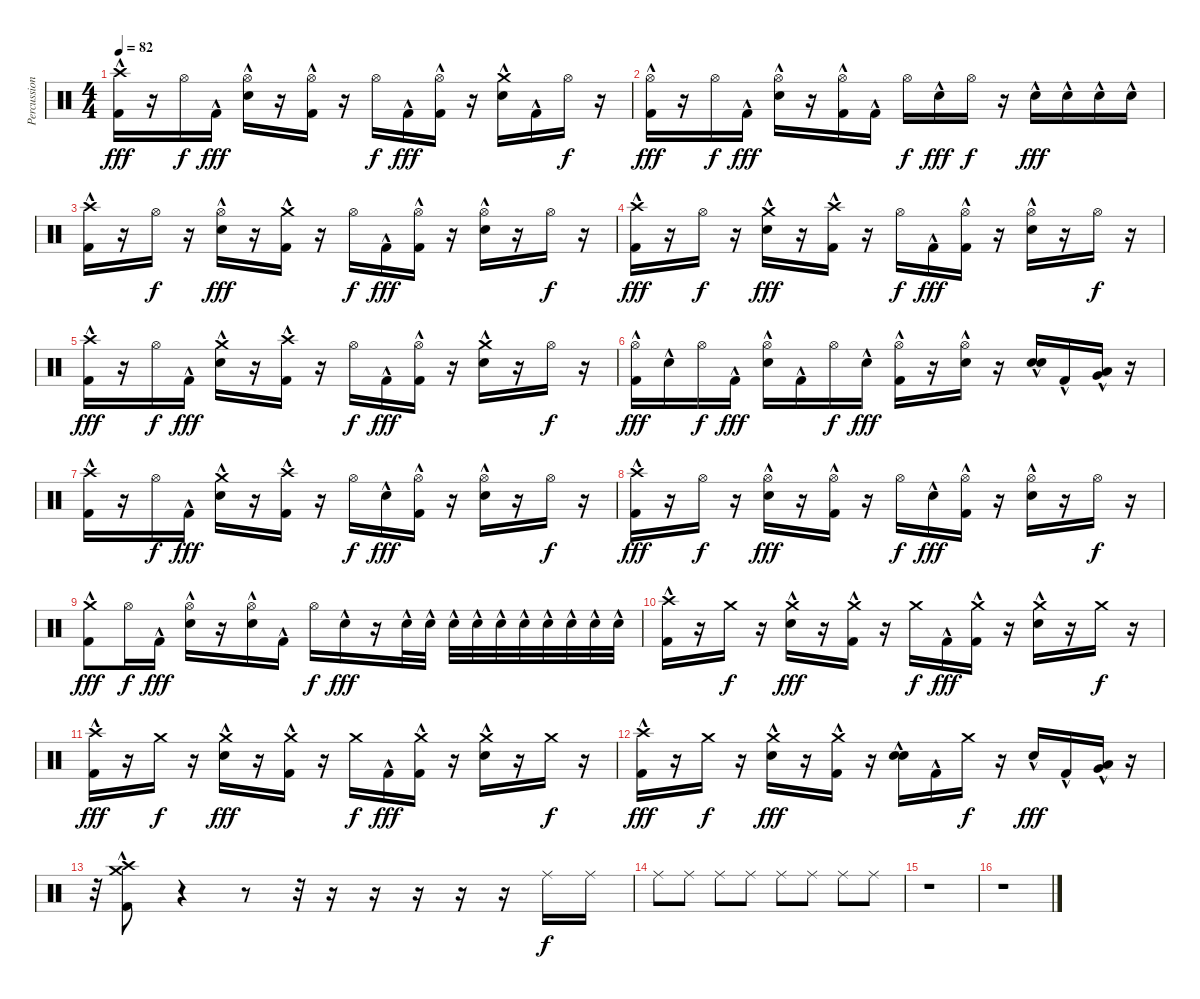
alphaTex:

\track ("Percussion" "Percussion") {instrument percussion}
\staff {score}
\articulation defaults
\ts (4 4)
\tempo 82
\clef neutral
\ks c
("Kick (hit) 2"{hac} "Crash high (hit)").16{dy fff} r.16 "Hi-Hat (open)".16{dy f} "Kick (hit) 2"{hac}.16{dy fff} ("Electric Snare (hit)"{hac} "Hi-Hat (open)").16 r.16 ("Kick (hit) 2"{hac} "Hi-Hat (open)").16 r.16 "Hi-Hat (open)".16{dy f} "Kick (hit) 2"{hac}.16{dy fff} ("Kick (hit) 2"{hac} "Hi-Hat (open)").16 r.16 ("Electric Snare (hit)"{hac} "Crash medium (hit)").16 "Kick (hit) 2"{hac}.16 "Hi-Hat (open)".16{dy f} r.16 |
("Kick (hit) 2"{hac} "Hi-Hat (open)").16{dy fff} r.16 "Hi-Hat (open)".16{dy f} "Kick (hit) 2"{hac}.16{dy fff} ("Electric Snare (hit)"{hac} "Hi-Hat (open)").16 r.16 ("Kick (hit) 2"{hac} "Hi-Hat (open)").16 "Kick (hit) 2"{hac}.16 "Hi-Hat (open)".16{dy f} "Electric Snare (hit)"{hac}.16{dy fff} "Hi-Hat (open)".16{dy f} r.16 "Electric Snare (hit)"{hac}.16{dy fff} "Electric Snare (hit)"{hac}.16 "Electric Snare (hit)"{hac}.16 "Electric Snare (hit)"{hac}.16 |
("Kick (hit) 2"{hac} "Crash high (hit)").16 r.16 "Hi-Hat (open)".16{dy f} r.16 ("Electric Snare (hit)"{hac} "Hi-Hat (open)").16{dy fff} r.16 ("Kick (hit) 2"{hac} "Crash medium (hit)").16 r.16 "Hi-Hat (open)".16{dy f} "Kick (hit) 2"{hac}.16{dy fff} ("Kick (hit) 2"{hac} "Hi-Hat (open)").16 r.16 ("Electric Snare (hit)"{hac} "Hi-Hat (open)").16 r.16 "Hi-Hat (open)".16{dy f} r.16 |
("Kick (hit) 2"{hac} "Crash high (hit)").16{dy fff} r.16 "Hi-Hat (open)".16{dy f} r.16 ("Electric Snare (hit)"{hac} "Crash medium (hit)").16{dy fff} r.16 ("Kick (hit) 2"{hac} "Crash high (hit)").16 r.16 "Hi-Hat (open)".16{dy f} "Kick (hit) 2"{hac}.16{dy fff} ("Kick (hit) 2"{hac} "Hi-Hat (open)").16 r.16 ("Electric Snare (hit)"{hac} "Hi-Hat (open)").16 r.16 "Hi-Hat (open)".16{dy f} r.16 |
("Kick (hit) 2"{hac} "Crash high (hit)").16{dy fff} r.16 "Hi-Hat (open)".16{dy f} "Kick (hit) 2"{hac}.16{dy fff} ("Electric Snare (hit)"{hac} "Crash medium (hit)").16 r.16 ("Kick (hit) 2"{hac} "Crash high (hit)").16 r.16 "Hi-Hat (open)".16{dy f} "Kick (hit) 2"{hac}.16{dy fff} ("Kick (hit) 2"{hac} "Hi-Hat (open)").16 r.16 ("Electric Snare (hit)"{hac} "Crash medium (hit)").16 r.16 "Hi-Hat (open)".16{dy f} r.16 |
("Kick (hit) 2"{hac} "Hi-Hat (open)").16{dy fff} "Electric Snare (hit)"{hac}.16 "Hi-Hat (open)".16{dy f} "Kick (hit) 2"{hac}.16{dy fff} ("Electric Snare (hit)"{hac} "Hi-Hat (open)").16 "Kick (hit) 2"{hac}.16 "Hi-Hat (open)".16{dy f} "Electric Snare (hit)"{hac}.16{dy fff} ("Kick (hit) 2"{hac} "Hi-Hat (open)").16 r.16 ("Electric Snare (hit)"{hac} "Hi-Hat (open)").16 r.16 ("Electric Snare (hit)"{hac} "Electric Snare (hit)"{hac}).16{bd 240} "Kick (hit) 2"{hac}.16 ("Very Low Tom (hit)"{hac} "Low Tom (hit)"{hac}).16 r.16 |
("Kick (hit) 2"{hac} "Crash high (hit)").16 r.16 "Hi-Hat (open)".16{dy f} "Kick (hit) 2"{hac}.16{dy fff} ("Electric Snare (hit)"{hac} "Crash medium (hit)").16 r.16 ("Kick (hit) 2"{hac} "Crash high (hit)").16 r.16 "Hi-Hat (open)".16{dy f} "Electric Snare (hit)"{hac}.16{dy fff} ("Kick (hit) 2"{hac} "Hi-Hat (open)").16 r.16 ("Electric Snare (hit)"{hac} "Hi-Hat (open)").16 r.16 "Hi-Hat (open)".16{dy f} r.16 |
("Kick (hit) 2"{hac} "Crash high (hit)").16{dy fff} r.16 "Hi-Hat (open)".16{dy f} r.16 ("Electric Snare (hit)"{hac} "Hi-Hat (open)").16{dy fff} r.16 ("Kick (hit) 2"{hac} "Hi-Hat (open)").16 r.16 "Hi-Hat (open)".16{dy f} "Electric Snare (hit)"{hac}.16{dy fff} ("Kick (hit) 2"{hac} "Hi-Hat (open)").16 r.16 ("Electric Snare (hit)"{hac} "Hi-Hat (open)").16 r.16 "Hi-Hat (open)".16{dy f} r.16 |
("Kick (hit) 2"{hac} "Crash medium (hit)").8{dy fff} "Hi-Hat (open)".16{dy f} "Kick (hit) 2"{hac}.16{dy fff} ("Electric Snare (hit)"{hac} "Hi-Hat (open)").16 r.16 ("Electric Snare (hit)"{hac} "Hi-Hat (open)").16 "Kick (hit) 2"{hac}.16 "Hi-Hat (open)".16{dy f} "Electric Snare (hit)"{hac}.16{dy fff} r.16{volume 5} "Electric Snare (hit)"{hac}.32{volume 8} "Electric Snare (hit)"{hac}.32 "Electric Snare (hit)"{hac}.32 "Electric Snare (hit)"{hac}.32 "Electric Snare (hit)"{hac}.32 "Electric Snare (hit)"{hac}.32 "Electric Snare (hit)"{hac}.32 "Electric Snare (hit)"{hac}.32 "Electric Snare (hit)"{hac}.32 "Electric Snare (hit)"{hac}.32 |
("Kick (hit) 2"{hac} "Crash high (hit)").16 r.16 "Crash medium (hit)".16{dy f} r.16 ("Electric Snare (hit)"{hac} "Crash medium (hit)").16{dy fff} r.16 ("Kick (hit) 2"{hac} "Crash medium (hit)").16 r.16 "Crash medium (hit)".16{dy f} "Kick (hit) 2"{hac}.16{dy fff} ("Kick (hit) 2"{hac} "Crash medium (hit)").16 r.16 ("Electric Snare (hit)"{hac} "Crash medium (hit)").16 r.16 "Crash medium (hit)".16{dy f} r.16 |
("Kick (hit) 2"{hac} "Crash high (hit)").16{dy fff} r.16 "Crash medium (hit)".16{dy f} r.16 ("Electric Snare (hit)"{hac} "Crash medium (hit)").16{dy fff} r.16 ("Kick (hit) 2"{hac} "Crash medium (hit)").16 r.16 "Crash medium (hit)".16{dy f} "Kick (hit) 2"{hac}.16{dy fff} ("Kick (hit) 2"{hac} "Crash medium (hit)").16 r.16 ("Electric Snare (hit)"{hac} "Crash medium (hit)").16 r.16 "Crash medium (hit)".16{dy f} r.16 |
("Kick (hit) 2"{hac} "Crash high (hit)").16{dy fff} r.16 "Crash medium (hit)".16{dy f} r.16 ("Electric Snare (hit)"{hac} "Crash medium (hit)").16{dy fff} r.16 ("Kick (hit) 2"{hac} "Crash medium (hit)").16 r.16 ("Electric Snare (hit)"{hac} "Electric Snare (hit)"{hac}).16{bd 240} "Kick (hit) 2"{hac}.16 "Crash medium (hit)".16{dy f} r.16 "Electric Snare (hit)"{hac}.16{dy fff} "Kick (hit) 2"{hac}.16 ("Very Low Tom (hit)"{hac} "Low Tom (hit)"{hac}).16 r.16 |
r.32 ("Kick (hit) 2"{hac} "Crash medium (hit)"{hac} "Crash high (hit)"{hac}).8 r.4 r.8 r.32 r.16 r.16 r.16 r.16 r.16 "Ride (middle)".16{dy f volume 2} "Ride (middle)".16 |
"Ride (middle)".8 "Ride (middle)".8 "Ride (middle)".8 "Ride (middle)".8 "Ride (middle)".8 "Ride (middle)".8 "Ride (middle)".8 "Ride (middle)".8 |
r.1 |
r.1
